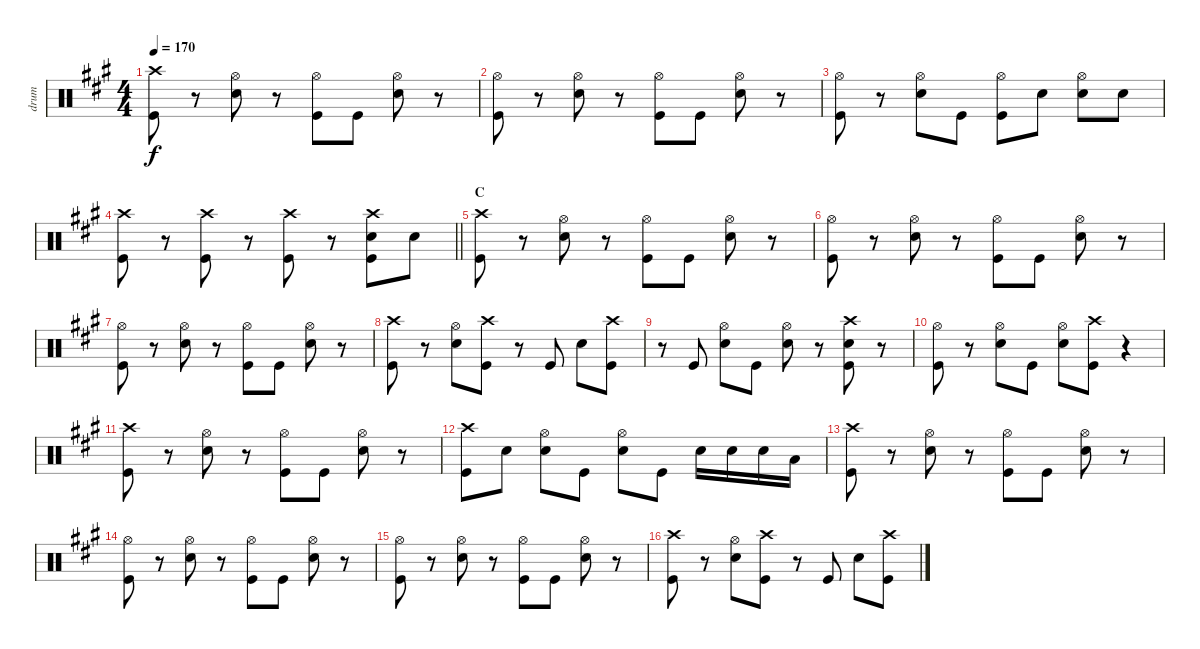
\track ("drum" "drum") {instrument percussion}
\staff {score}
\articulation defaults
\ts (4 4)
\tempo 170
\clef neutral
\ks a
("Crash high (hit)" "Kick (hit)").8{dy f} r.8 ("Hi-Hat (open)" "Snare (hit) 2").8 r.8 ("Hi-Hat (open)" "Kick (hit)").8 "Kick (hit)".8 ("Hi-Hat (open)" "Snare (hit) 2").8 r.8 |
("Hi-Hat (open)" "Kick (hit)").8 r.8 ("Hi-Hat (open)" "Snare (hit) 2").8 r.8 ("Hi-Hat (open)" "Kick (hit)").8 "Kick (hit)".8 ("Hi-Hat (open)" "Snare (hit) 2").8 r.8 |
("Hi-Hat (open)" "Kick (hit)").8 r.8 ("Hi-Hat (open)" "Snare (hit) 2").8 "Kick (hit)".8 ("Hi-Hat (open)" "Kick (hit)").8 "Snare (hit) 2".8 ("Hi-Hat (open)" "Snare (hit) 2").8 "Snare (hit) 2".8 |
\barLineRight lightlight
("Crash high (hit)" "Kick (hit)").8 r.8 ("Crash high (hit)" "Kick (hit)").8 r.8 ("Crash high (hit)" "Kick (hit)").8 r.8 ("Crash high (hit)" "Snare (hit) 2" "Kick (hit)").8 "Snare (hit) 2".8 |
\section ("" "C")
("Crash high (hit)" "Kick (hit)").8 r.8 ("Hi-Hat (open)" "Snare (hit) 2").8 r.8 ("Hi-Hat (open)" "Kick (hit)").8 "Kick (hit)".8 ("Hi-Hat (open)" "Snare (hit) 2").8 r.8 |
("Hi-Hat (open)" "Kick (hit)").8 r.8 ("Hi-Hat (open)" "Snare (hit) 2").8 r.8 ("Hi-Hat (open)" "Kick (hit)").8 "Kick (hit)".8 ("Hi-Hat (open)" "Snare (hit) 2").8 r.8 |
("Hi-Hat (open)" "Kick (hit)").8 r.8 ("Hi-Hat (open)" "Snare (hit) 2").8 r.8 ("Hi-Hat (open)" "Kick (hit)").8 "Kick (hit)".8 ("Hi-Hat (open)" "Snare (hit) 2").8 r.8 |
("Crash high (hit)" "Kick (hit)").8 r.8 ("Hi-Hat (open)" "Snare (hit) 2").8 ("Crash high (hit)" "Kick (hit)").8 r.8 "Kick (hit)".8 "Snare (hit) 2".8 ("Crash high (hit)" "Kick (hit)").8 |
r.8 "Kick (hit)".8 ("Hi-Hat (open)" "Snare (hit) 2").8 "Kick (hit)".8 ("Hi-Hat (open)" "Snare (hit) 2").8 r.8 ("Crash high (hit)" "Snare (hit) 2" "Kick (hit)").8 r.8 |
("Hi-Hat (open)" "Kick (hit)").8 r.8 ("Hi-Hat (open)" "Snare (hit) 2").8 "Kick (hit)".8 ("Hi-Hat (open)" "Snare (hit) 2").8 ("Crash high (hit)" "Kick (hit)").8 r.4 |
("Crash high (hit)" "Kick (hit)").8 r.8 ("Hi-Hat (open)" "Snare (hit) 2").8 r.8 ("Hi-Hat (open)" "Kick (hit)").8 "Kick (hit)".8 ("Hi-Hat (open)" "Snare (hit) 2").8 r.8 |
("Crash high (hit)" "Kick (hit)").8 "Snare (hit) 2".8 ("Hi-Hat (open)" "Snare (hit) 2").8 "Kick (hit)".8 ("Hi-Hat (open)" "Snare (hit) 2").8 "Kick (hit)".8 "Snare (hit) 2".16 "Snare (hit) 2".16 "Snare (hit) 2".16 "Low Tom (hit)".16 |
("Crash high (hit)" "Kick (hit)").8 r.8 ("Hi-Hat (open)" "Snare (hit) 2").8 r.8 ("Hi-Hat (open)" "Kick (hit)").8 "Kick (hit)".8 ("Hi-Hat (open)" "Snare (hit) 2").8 r.8 |
("Hi-Hat (open)" "Kick (hit)").8 r.8 ("Hi-Hat (open)" "Snare (hit) 2").8 r.8 ("Hi-Hat (open)" "Kick (hit)").8 "Kick (hit)".8 ("Hi-Hat (open)" "Snare (hit) 2").8 r.8 |
("Hi-Hat (open)" "Kick (hit)").8 r.8 ("Hi-Hat (open)" "Snare (hit) 2").8 r.8 ("Hi-Hat (open)" "Kick (hit)").8 "Kick (hit)".8 ("Hi-Hat (open)" "Snare (hit) 2").8 r.8 |
("Crash high (hit)" "Kick (hit)").8 r.8 ("Hi-Hat (open)" "Snare (hit) 2").8 ("Crash high (hit)" "Kick (hit)").8 r.8 "Kick (hit)".8 "Snare (hit) 2".8 ("Crash high (hit)" "Kick (hit)").8
